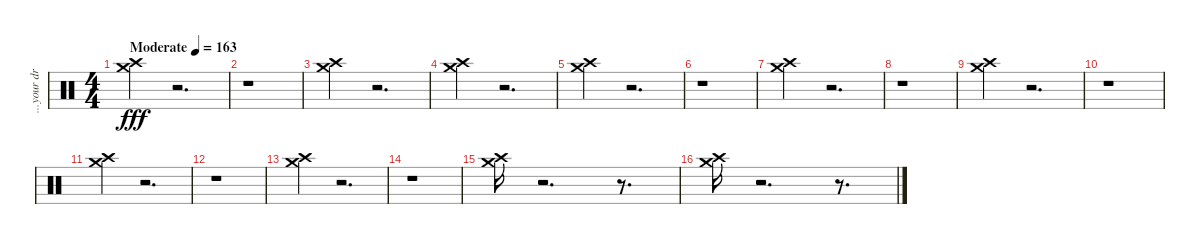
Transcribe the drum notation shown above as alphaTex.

\track ("...your drums (read: cymbals)..." "...your dr") {instrument percussion}
\staff {score}
\articulation defaults
\ts (4 4)
\tempo (163 "Moderate")
\clef neutral
\ks c
("Crash high (hit)" "Crash medium (hit)").4{dy fff} r.2{d} |
r.1 |
("Crash high (hit)" "Crash medium (hit)").4 r.2{d} |
("Crash high (hit)" "Crash medium (hit)").4 r.2{d} |
("Crash high (hit)" "Crash medium (hit)").4 r.2{d} |
r.1 |
("Crash high (hit)" "Crash medium (hit)").4 r.2{d} |
r.1 |
("Crash high (hit)" "Crash medium (hit)").4 r.2{d} |
r.1 |
("Crash high (hit)" "Crash medium (hit)").4 r.2{d} |
r.1 |
("Crash high (hit)" "Crash medium (hit)").4 r.2{d} |
r.1 |
("Crash high (hit)" "Crash medium (hit)").16 r.2{d} r.8{d} |
("Crash high (hit)" "Crash medium (hit)").16 r.2{d} r.8{d}
